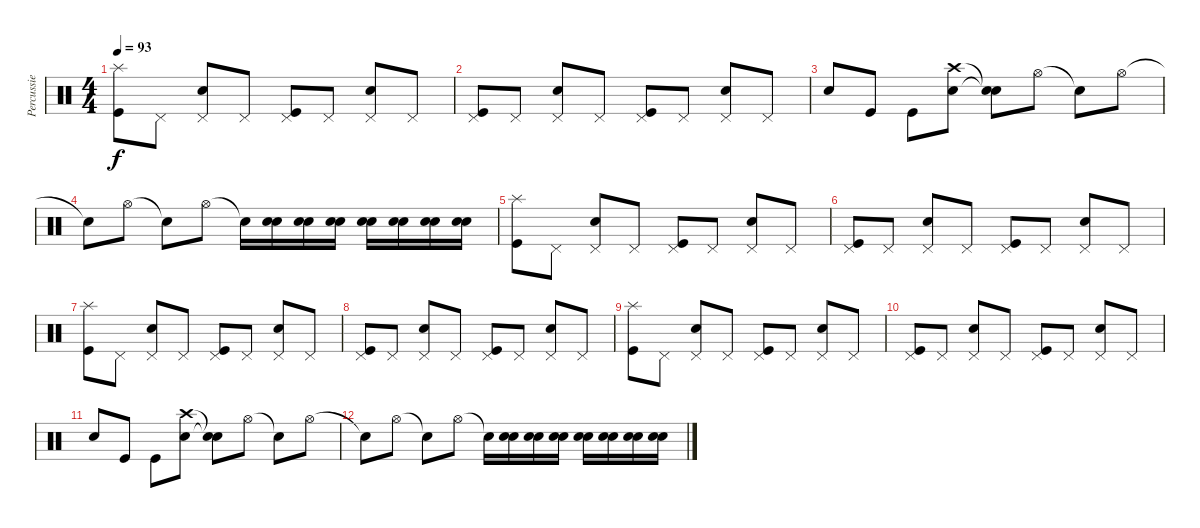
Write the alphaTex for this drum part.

\track ("Percussie" "Percussie") {instrument percussion}
\staff {score}
\articulation defaults
\ts (4 4)
\tempo 93
\clef neutral
\ks c
("Splash (hit)" "Kick (hit)").8{dy f} "Pedal Hi-Hat (hit)".8 ("Electric Snare (hit)" "Pedal Hi-Hat (hit)").8 "Pedal Hi-Hat (hit)".8 ("Pedal Hi-Hat (hit)" "Kick (hit)").8 "Pedal Hi-Hat (hit)".8 ("Electric Snare (hit)" "Pedal Hi-Hat (hit)").8 "Pedal Hi-Hat (hit)".8 |
("Pedal Hi-Hat (hit)" "Kick (hit)").8 "Pedal Hi-Hat (hit)".8 ("Electric Snare (hit)" "Pedal Hi-Hat (hit)").8 "Pedal Hi-Hat (hit)".8 ("Pedal Hi-Hat (hit)" "Kick (hit)").8 "Pedal Hi-Hat (hit)".8 ("Electric Snare (hit)" "Pedal Hi-Hat (hit)").8 "Pedal Hi-Hat (hit)".8 |
"Electric Snare (hit)".8 "Kick (hit)".8 "Kick (hit)".8 ("Crash high (hit)" "Electric Snare (hit)").8 ("Snare (hit)"{t} "Snare (hit)"{t}).8 "Hi-Hat (open)".8 "Snare (hit)"{t}.8 "Hi-Hat (open)".8 |
"Snare (hit)"{t}.8 "Hi-Hat (open)".8 "Snare (hit)"{t}.8 "Hi-Hat (open)".8 "Snare (hit)"{t}.16 ("Electric Snare (hit)" "Snare (hit) 2").16 ("Electric Snare (hit)" "Snare (hit) 2").16 ("Electric Snare (hit)" "Snare (hit) 2").16 ("Electric Snare (hit)" "Snare (hit) 2").16 ("Electric Snare (hit)" "Snare (hit) 2").16 ("Electric Snare (hit)" "Snare (hit) 2").16 ("Electric Snare (hit)" "Snare (hit) 2").16 |
("Splash (hit)" "Kick (hit)").8 "Pedal Hi-Hat (hit)".8 ("Electric Snare (hit)" "Pedal Hi-Hat (hit)").8 "Pedal Hi-Hat (hit)".8 ("Pedal Hi-Hat (hit)" "Kick (hit)").8 "Pedal Hi-Hat (hit)".8 ("Electric Snare (hit)" "Pedal Hi-Hat (hit)").8 "Pedal Hi-Hat (hit)".8 |
("Pedal Hi-Hat (hit)" "Kick (hit)").8 "Pedal Hi-Hat (hit)".8 ("Electric Snare (hit)" "Pedal Hi-Hat (hit)").8 "Pedal Hi-Hat (hit)".8 ("Pedal Hi-Hat (hit)" "Kick (hit)").8 "Pedal Hi-Hat (hit)".8 ("Electric Snare (hit)" "Pedal Hi-Hat (hit)").8 "Pedal Hi-Hat (hit)".8 |
("Splash (hit)" "Kick (hit)").8 "Pedal Hi-Hat (hit)".8 ("Electric Snare (hit)" "Pedal Hi-Hat (hit)").8 "Pedal Hi-Hat (hit)".8 ("Pedal Hi-Hat (hit)" "Kick (hit)").8 "Pedal Hi-Hat (hit)".8 ("Electric Snare (hit)" "Pedal Hi-Hat (hit)").8 "Pedal Hi-Hat (hit)".8 |
("Pedal Hi-Hat (hit)" "Kick (hit)").8 "Pedal Hi-Hat (hit)".8 ("Electric Snare (hit)" "Pedal Hi-Hat (hit)").8 "Pedal Hi-Hat (hit)".8 ("Pedal Hi-Hat (hit)" "Kick (hit)").8 "Pedal Hi-Hat (hit)".8 ("Electric Snare (hit)" "Pedal Hi-Hat (hit)").8 "Pedal Hi-Hat (hit)".8 |
("Splash (hit)" "Kick (hit)").8 "Pedal Hi-Hat (hit)".8 ("Electric Snare (hit)" "Pedal Hi-Hat (hit)").8 "Pedal Hi-Hat (hit)".8 ("Pedal Hi-Hat (hit)" "Kick (hit)").8 "Pedal Hi-Hat (hit)".8 ("Electric Snare (hit)" "Pedal Hi-Hat (hit)").8 "Pedal Hi-Hat (hit)".8 |
("Pedal Hi-Hat (hit)" "Kick (hit)").8 "Pedal Hi-Hat (hit)".8 ("Electric Snare (hit)" "Pedal Hi-Hat (hit)").8 "Pedal Hi-Hat (hit)".8 ("Pedal Hi-Hat (hit)" "Kick (hit)").8 "Pedal Hi-Hat (hit)".8 ("Electric Snare (hit)" "Pedal Hi-Hat (hit)").8 "Pedal Hi-Hat (hit)".8 |
"Electric Snare (hit)".8 "Kick (hit)".8 "Kick (hit)".8 ("Crash high (hit)" "Electric Snare (hit)").8 ("Snare (hit)"{t} "Snare (hit)"{t}).8 "Hi-Hat (open)".8 "Snare (hit)"{t}.8 "Hi-Hat (open)".8 |
"Snare (hit)"{t}.8 "Hi-Hat (open)".8 "Snare (hit)"{t}.8 "Hi-Hat (open)".8 "Snare (hit)"{t}.16 ("Electric Snare (hit)" "Snare (hit) 2").16 ("Electric Snare (hit)" "Snare (hit) 2").16 ("Electric Snare (hit)" "Snare (hit) 2").16 ("Electric Snare (hit)" "Snare (hit) 2").16 ("Electric Snare (hit)" "Snare (hit) 2").16 ("Electric Snare (hit)" "Snare (hit) 2").16 ("Electric Snare (hit)" "Snare (hit) 2").16
